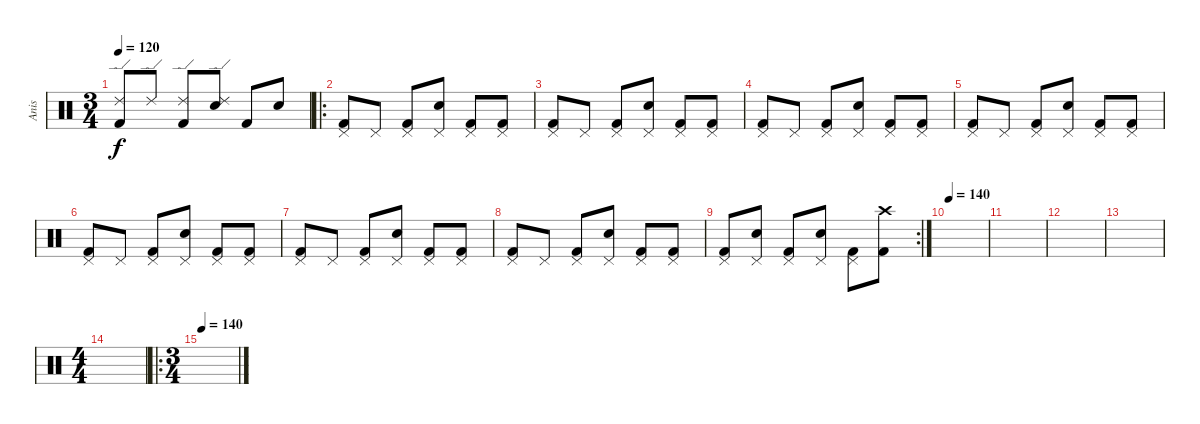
\track ("Anis" "Anis") {instrument percussion}
\staff {score}
\articulation defaults
\ts (3 4)
\tempo 120
\clef neutral
\ks c
("Ride (edge) 2" "Kick (hit) 2").8{dy f} "Ride (edge) 2".8 ("Ride (edge) 2" "Kick (hit) 2").8 ("Electric Snare (hit)" "Ride (edge) 2").8 "Kick (hit) 2".8 "Electric Snare (hit)".8 |
\ro
("Pedal Hi-Hat (hit)" "Kick (hit) 2").8 "Pedal Hi-Hat (hit)".8 ("Pedal Hi-Hat (hit)" "Kick (hit) 2").8 ("Pedal Hi-Hat (hit)" "Electric Snare (hit)").8 ("Pedal Hi-Hat (hit)" "Kick (hit) 2").8 ("Pedal Hi-Hat (hit)" "Kick (hit) 2").8 |
("Pedal Hi-Hat (hit)" "Kick (hit) 2").8 "Pedal Hi-Hat (hit)".8 ("Pedal Hi-Hat (hit)" "Kick (hit) 2").8 ("Pedal Hi-Hat (hit)" "Electric Snare (hit)").8 ("Pedal Hi-Hat (hit)" "Kick (hit) 2").8 ("Pedal Hi-Hat (hit)" "Kick (hit) 2").8 |
("Pedal Hi-Hat (hit)" "Kick (hit) 2").8 "Pedal Hi-Hat (hit)".8 ("Pedal Hi-Hat (hit)" "Kick (hit) 2").8 ("Pedal Hi-Hat (hit)" "Electric Snare (hit)").8 ("Pedal Hi-Hat (hit)" "Kick (hit) 2").8 ("Pedal Hi-Hat (hit)" "Kick (hit) 2").8 |
("Pedal Hi-Hat (hit)" "Kick (hit) 2").8 "Pedal Hi-Hat (hit)".8 ("Pedal Hi-Hat (hit)" "Kick (hit) 2").8 ("Pedal Hi-Hat (hit)" "Electric Snare (hit)").8 ("Pedal Hi-Hat (hit)" "Kick (hit) 2").8 ("Pedal Hi-Hat (hit)" "Kick (hit) 2").8 |
("Pedal Hi-Hat (hit)" "Kick (hit) 2").8 "Pedal Hi-Hat (hit)".8 ("Pedal Hi-Hat (hit)" "Kick (hit) 2").8 ("Pedal Hi-Hat (hit)" "Electric Snare (hit)").8 ("Pedal Hi-Hat (hit)" "Kick (hit) 2").8 ("Pedal Hi-Hat (hit)" "Kick (hit) 2").8 |
("Pedal Hi-Hat (hit)" "Kick (hit) 2").8 "Pedal Hi-Hat (hit)".8 ("Pedal Hi-Hat (hit)" "Kick (hit) 2").8 ("Pedal Hi-Hat (hit)" "Electric Snare (hit)").8 ("Pedal Hi-Hat (hit)" "Kick (hit) 2").8 ("Pedal Hi-Hat (hit)" "Kick (hit) 2").8 |
("Pedal Hi-Hat (hit)" "Kick (hit) 2").8 "Pedal Hi-Hat (hit)".8 ("Pedal Hi-Hat (hit)" "Kick (hit) 2").8 ("Pedal Hi-Hat (hit)" "Electric Snare (hit)").8 ("Pedal Hi-Hat (hit)" "Kick (hit) 2").8 ("Pedal Hi-Hat (hit)" "Kick (hit) 2").8 |
\rc 2
("Pedal Hi-Hat (hit)" "Kick (hit) 2").8 ("Electric Snare (hit)" "Pedal Hi-Hat (hit)").8 ("Pedal Hi-Hat (hit)" "Kick (hit) 2").8 ("Electric Snare (hit)" "Pedal Hi-Hat (hit)").8 ("Pedal Hi-Hat (hit)" "Kick (hit) 2").8 ("Crash high (hit)" "Kick (hit) 2").8 |
\tempo 140
|
|
|
|
\ts (4 4)
|
\ro
\ts (3 4)
\tempo 140
